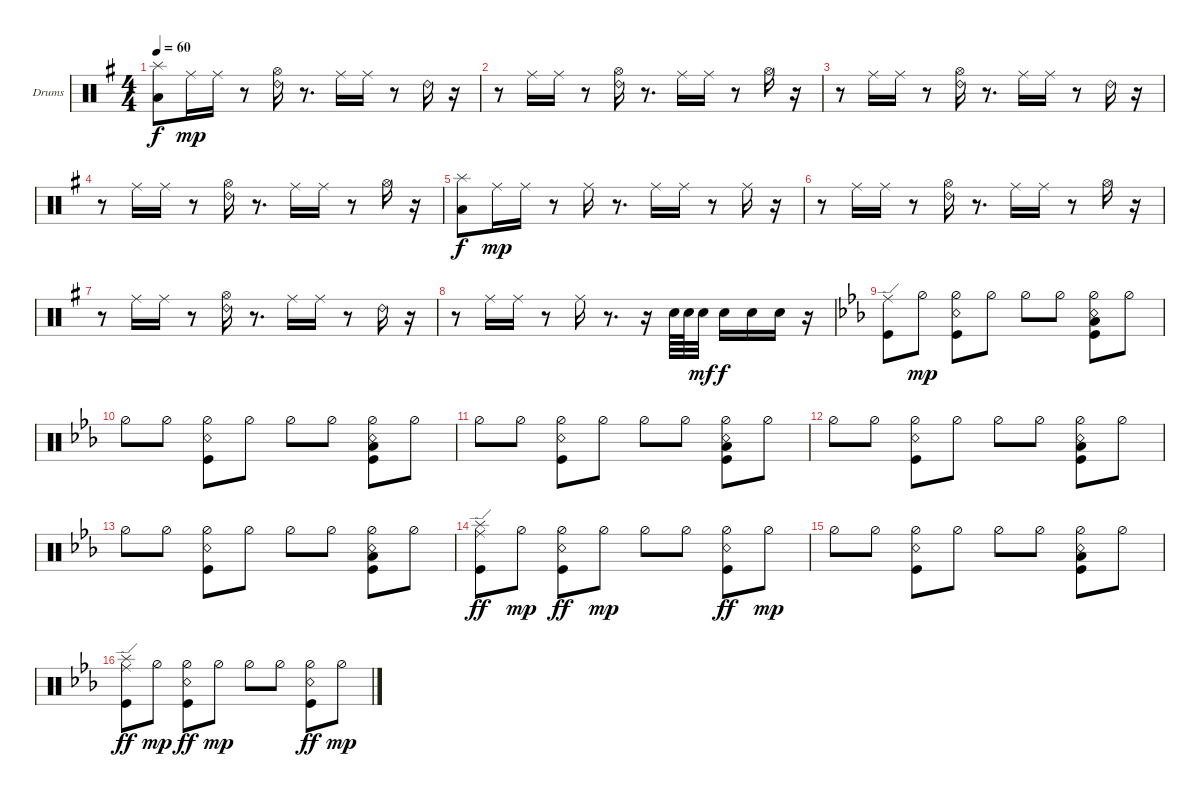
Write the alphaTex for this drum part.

\defaultSystemsLayout 4
\bracketExtendMode groupsimilarinstruments
\firstSystemTrackNameOrientation horizontal
\otherSystemsTrackNameOrientation horizontal
\track ("Drumkit (Darrell Sweet)" "Drums") {instrument percussion}
\staff {score}
\articulation defaults
\ts (4 4)
\tempo 60
\clef neutral
\ks eminor
("Low Tom (hit)" "Splash (hit)").8{dy f} "Ride (middle)".16{dy mp} "Ride (middle)".16 r.8 ("Hi-Hat (open)" "Ride (bell) 2").16 r.8{d} "Ride (middle)".16 "Ride (middle)".16 r.8 "Ride (bell) 2".16 r.16 |
r.8 "Ride (middle)".16 "Ride (middle)".16 r.8 ("Hi-Hat (open)" "Ride (bell) 2").16 r.8{d} "Ride (middle)".16 "Ride (middle)".16 r.8 "Hi-Hat (open)".16 r.16 |
r.8 "Ride (middle)".16 "Ride (middle)".16 r.8 ("Hi-Hat (open)" "Ride (bell) 2").16 r.8{d} "Ride (middle)".16 "Ride (middle)".16 r.8 "Ride (bell) 2".16 r.16 |
r.8 "Ride (middle)".16 "Ride (middle)".16 r.8 ("Ride (bell) 2" "Hi-Hat (open)").16 r.8{d} "Ride (middle)".16 "Ride (middle)".16 r.8 "Hi-Hat (open)".16 r.16 |
("Low Tom (hit)" "Splash (hit)").8{dy f} "Ride (middle)".16{dy mp} "Ride (middle)".16 r.8 "Ride (middle)".16 r.8{d} "Ride (middle)".16 "Ride (middle)".16 r.8 "Ride (middle)".16 r.16 |
r.8 "Ride (middle)".16 "Ride (middle)".16 r.8 ("Ride (bell) 2" "Hi-Hat (open)").16 r.8{d} "Ride (middle)".16 "Ride (middle)".16 r.8 "Hi-Hat (open)".16 r.16 |
r.8 "Ride (middle)".16 "Ride (middle)".16 r.8 ("Hi-Hat (open)" "Ride (bell) 2").16 r.8{d} "Ride (middle)".16 "Ride (middle)".16 r.8 "Ride (bell) 2".16 r.16 |
r.8 "Ride (middle)".16 "Ride (middle)".16 r.8 "Ride (middle)".16 r.8{d} r.16 "Snare (hit) 2".64 "Snare (hit) 2".64 "Snare (hit) 2".32{dy mf} "Snare (hit) 2".16{dy f} "Snare (hit) 2".16 "Snare (hit) 2".16 r.16 |
\ks cminor
("Kick (hit)" "Ride (edge)").8 "Hi-Hat (half)".8{dy mp} ("Hi-Hat (half)" "Kick (hit)" "Snare (rim shot)").8 "Hi-Hat (half)".8 "Hi-Hat (half)".8 "Hi-Hat (half)".8 ("Hi-Hat (half)" "Kick (hit)" "Low Tom (hit)" "Snare (rim shot)").8 "Hi-Hat (half)".8 |
"Hi-Hat (half)".8 "Hi-Hat (half)".8 ("Hi-Hat (half)" "Kick (hit)" "Snare (rim shot)").8 "Hi-Hat (half)".8 "Hi-Hat (half)".8 "Hi-Hat (half)".8 ("Hi-Hat (half)" "Low Tom (hit)" "Kick (hit)" "Snare (rim shot)").8 "Hi-Hat (half)".8 |
"Hi-Hat (half)".8 "Hi-Hat (half)".8 ("Hi-Hat (half)" "Kick (hit)" "Snare (rim shot)").8 "Hi-Hat (half)".8 "Hi-Hat (half)".8 "Hi-Hat (half)".8 ("Hi-Hat (half)" "Low Tom (hit)" "Kick (hit)" "Snare (rim shot)").8 "Hi-Hat (half)".8 |
"Hi-Hat (half)".8 "Hi-Hat (half)".8 ("Hi-Hat (half)" "Kick (hit)" "Snare (rim shot)").8 "Hi-Hat (half)".8 "Hi-Hat (half)".8 "Hi-Hat (half)".8 ("Hi-Hat (half)" "Low Tom (hit)" "Kick (hit)" "Snare (rim shot)").8 "Hi-Hat (half)".8 |
"Hi-Hat (half)".8 "Hi-Hat (half)".8 ("Hi-Hat (half)" "Kick (hit)" "Snare (rim shot)").8 "Hi-Hat (half)".8 "Hi-Hat (half)".8 "Hi-Hat (half)".8 ("Hi-Hat (half)" "Low Tom (hit)" "Kick (hit)" "Snare (rim shot)").8 "Hi-Hat (half)".8 |
("Splash (hit)" "Kick (hit)" "Ride (edge)").8{dy ff} "Hi-Hat (half)".8{dy mp} ("Hi-Hat (half)" "Kick (hit)" "Snare (rim shot)").8{dy ff} "Hi-Hat (half)".8{dy mp} "Hi-Hat (half)".8 "Hi-Hat (half)".8 ("Hi-Hat (half)" "Kick (hit)" "Snare (rim shot)").8{dy ff} "Hi-Hat (half)".8{dy mp} |
"Hi-Hat (half)".8 "Hi-Hat (half)".8 ("Hi-Hat (half)" "Kick (hit)" "Snare (rim shot)").8 "Hi-Hat (half)".8 "Hi-Hat (half)".8 "Hi-Hat (half)".8 ("Hi-Hat (half)" "Low Tom (hit)" "Kick (hit)" "Snare (rim shot)").8 "Hi-Hat (half)".8 |
("Splash (hit)" "Kick (hit)" "Ride (edge)").8{dy ff} "Hi-Hat (half)".8{dy mp} ("Hi-Hat (half)" "Kick (hit)" "Snare (rim shot)").8{dy ff} "Hi-Hat (half)".8{dy mp} "Hi-Hat (half)".8 "Hi-Hat (half)".8 ("Hi-Hat (half)" "Kick (hit)" "Snare (rim shot)").8{dy ff} "Hi-Hat (half)".8{dy mp}
